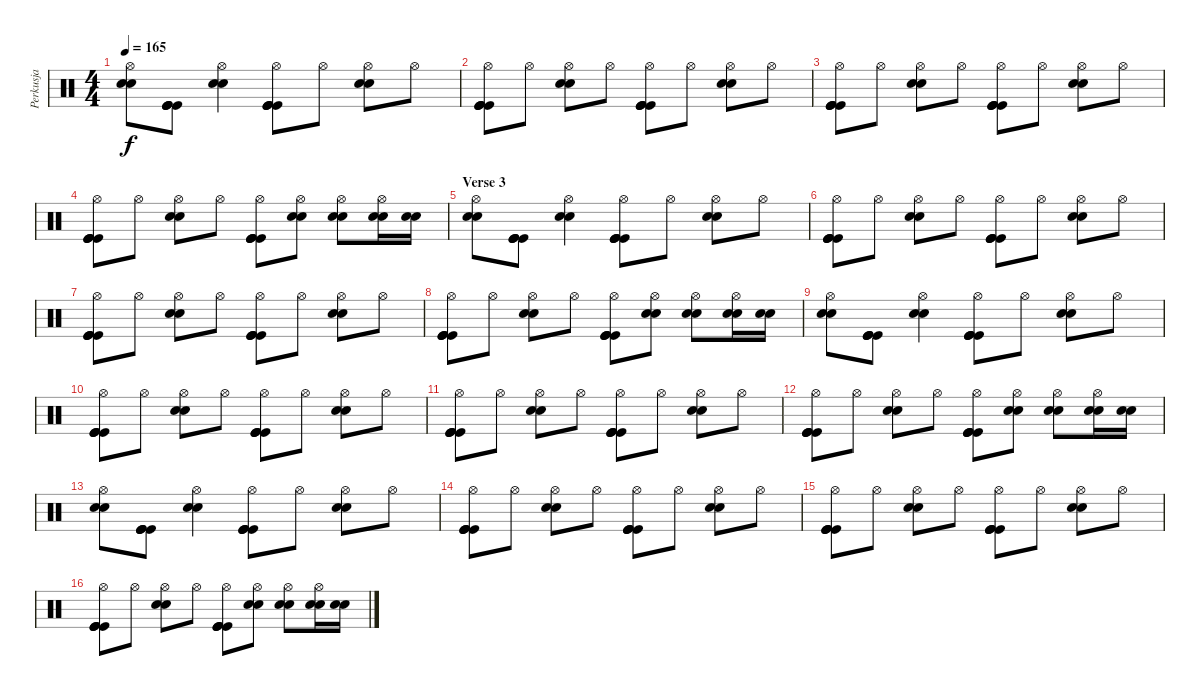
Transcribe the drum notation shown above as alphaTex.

\track ("Perkusja" "Perkusja") {instrument percussion}
\staff {score}
\articulation defaults
\ts (4 4)
\tempo 165
\clef neutral
\ks c
("Hi-Hat (open)" "Snare (hit) 2" "Snare (hit) 2").8{dy f} ("Kick (hit)" "Kick (hit)" "Kick (hit)" "Kick (hit)").8 ("Hi-Hat (open)" "Snare (hit) 2" "Snare (hit) 2").4 ("Hi-Hat (open)" "Kick (hit)" "Kick (hit)" "Kick (hit)" "Kick (hit)").8 "Hi-Hat (open)".8 ("Hi-Hat (open)" "Snare (hit) 2" "Snare (hit) 2").8 "Hi-Hat (open)".8 |
("Hi-Hat (open)" "Kick (hit)" "Kick (hit)" "Kick (hit)" "Kick (hit)").8 "Hi-Hat (open)".8 ("Hi-Hat (open)" "Snare (hit) 2" "Snare (hit) 2").8 "Hi-Hat (open)".8 ("Hi-Hat (open)" "Kick (hit)" "Kick (hit)" "Kick (hit)" "Kick (hit)").8 "Hi-Hat (open)".8 ("Hi-Hat (open)" "Snare (hit) 2" "Snare (hit) 2").8 "Hi-Hat (open)".8 |
("Hi-Hat (open)" "Kick (hit)" "Kick (hit)" "Kick (hit)" "Kick (hit)").8 "Hi-Hat (open)".8 ("Hi-Hat (open)" "Snare (hit) 2" "Snare (hit) 2").8 "Hi-Hat (open)".8 ("Hi-Hat (open)" "Kick (hit)" "Kick (hit)" "Kick (hit)" "Kick (hit)").8 "Hi-Hat (open)".8 ("Hi-Hat (open)" "Snare (hit) 2" "Snare (hit) 2").8 "Hi-Hat (open)".8 |
("Hi-Hat (open)" "Kick (hit)" "Kick (hit)" "Kick (hit)" "Kick (hit)").8 "Hi-Hat (open)".8 ("Hi-Hat (open)" "Snare (hit) 2" "Snare (hit) 2").8 "Hi-Hat (open)".8 ("Hi-Hat (open)" "Kick (hit)" "Kick (hit)" "Kick (hit)" "Kick (hit)").8 ("Hi-Hat (open)" "Snare (hit) 2" "Snare (hit) 2").8 ("Hi-Hat (open)" "Snare (hit) 2" "Snare (hit) 2").8 ("Hi-Hat (open)" "Snare (hit) 2" "Snare (hit) 2").16 ("Snare (hit) 2" "Snare (hit) 2").16 |
\section ("" "Verse 3")
("Hi-Hat (open)" "Snare (hit) 2" "Snare (hit) 2").8 ("Kick (hit)" "Kick (hit)" "Kick (hit)" "Kick (hit)").8 ("Hi-Hat (open)" "Snare (hit) 2" "Snare (hit) 2").4 ("Hi-Hat (open)" "Kick (hit)" "Kick (hit)" "Kick (hit)" "Kick (hit)").8 "Hi-Hat (open)".8 ("Hi-Hat (open)" "Snare (hit) 2" "Snare (hit) 2").8 "Hi-Hat (open)".8 |
("Hi-Hat (open)" "Kick (hit)" "Kick (hit)" "Kick (hit)" "Kick (hit)").8 "Hi-Hat (open)".8 ("Hi-Hat (open)" "Snare (hit) 2" "Snare (hit) 2").8 "Hi-Hat (open)".8 ("Hi-Hat (open)" "Kick (hit)" "Kick (hit)" "Kick (hit)" "Kick (hit)").8 "Hi-Hat (open)".8 ("Hi-Hat (open)" "Snare (hit) 2" "Snare (hit) 2").8 "Hi-Hat (open)".8 |
("Hi-Hat (open)" "Kick (hit)" "Kick (hit)" "Kick (hit)" "Kick (hit)").8 "Hi-Hat (open)".8 ("Hi-Hat (open)" "Snare (hit) 2" "Snare (hit) 2").8 "Hi-Hat (open)".8 ("Hi-Hat (open)" "Kick (hit)" "Kick (hit)" "Kick (hit)" "Kick (hit)").8 "Hi-Hat (open)".8 ("Hi-Hat (open)" "Snare (hit) 2" "Snare (hit) 2").8 "Hi-Hat (open)".8 |
("Hi-Hat (open)" "Kick (hit)" "Kick (hit)" "Kick (hit)" "Kick (hit)").8 "Hi-Hat (open)".8 ("Hi-Hat (open)" "Snare (hit) 2" "Snare (hit) 2").8 "Hi-Hat (open)".8 ("Hi-Hat (open)" "Kick (hit)" "Kick (hit)" "Kick (hit)" "Kick (hit)").8 ("Hi-Hat (open)" "Snare (hit) 2" "Snare (hit) 2").8 ("Hi-Hat (open)" "Snare (hit) 2" "Snare (hit) 2").8 ("Hi-Hat (open)" "Snare (hit) 2" "Snare (hit) 2").16 ("Snare (hit) 2" "Snare (hit) 2").16 |
("Hi-Hat (open)" "Snare (hit) 2" "Snare (hit) 2").8 ("Kick (hit)" "Kick (hit)" "Kick (hit)" "Kick (hit)").8 ("Hi-Hat (open)" "Snare (hit) 2" "Snare (hit) 2").4 ("Hi-Hat (open)" "Kick (hit)" "Kick (hit)" "Kick (hit)" "Kick (hit)").8 "Hi-Hat (open)".8 ("Hi-Hat (open)" "Snare (hit) 2" "Snare (hit) 2").8 "Hi-Hat (open)".8 |
("Hi-Hat (open)" "Kick (hit)" "Kick (hit)" "Kick (hit)" "Kick (hit)").8 "Hi-Hat (open)".8 ("Hi-Hat (open)" "Snare (hit) 2" "Snare (hit) 2").8 "Hi-Hat (open)".8 ("Hi-Hat (open)" "Kick (hit)" "Kick (hit)" "Kick (hit)" "Kick (hit)").8 "Hi-Hat (open)".8 ("Hi-Hat (open)" "Snare (hit) 2" "Snare (hit) 2").8 "Hi-Hat (open)".8 |
("Hi-Hat (open)" "Kick (hit)" "Kick (hit)" "Kick (hit)" "Kick (hit)").8 "Hi-Hat (open)".8 ("Hi-Hat (open)" "Snare (hit) 2" "Snare (hit) 2").8 "Hi-Hat (open)".8 ("Hi-Hat (open)" "Kick (hit)" "Kick (hit)" "Kick (hit)" "Kick (hit)").8 "Hi-Hat (open)".8 ("Hi-Hat (open)" "Snare (hit) 2" "Snare (hit) 2").8 "Hi-Hat (open)".8 |
("Hi-Hat (open)" "Kick (hit)" "Kick (hit)" "Kick (hit)" "Kick (hit)").8 "Hi-Hat (open)".8 ("Hi-Hat (open)" "Snare (hit) 2" "Snare (hit) 2").8 "Hi-Hat (open)".8 ("Hi-Hat (open)" "Kick (hit)" "Kick (hit)" "Kick (hit)" "Kick (hit)").8 ("Hi-Hat (open)" "Snare (hit) 2" "Snare (hit) 2").8 ("Hi-Hat (open)" "Snare (hit) 2" "Snare (hit) 2").8 ("Hi-Hat (open)" "Snare (hit) 2" "Snare (hit) 2").16 ("Snare (hit) 2" "Snare (hit) 2").16 |
("Hi-Hat (open)" "Snare (hit) 2" "Snare (hit) 2").8 ("Kick (hit)" "Kick (hit)" "Kick (hit)" "Kick (hit)").8 ("Hi-Hat (open)" "Snare (hit) 2" "Snare (hit) 2").4 ("Hi-Hat (open)" "Kick (hit)" "Kick (hit)" "Kick (hit)" "Kick (hit)").8 "Hi-Hat (open)".8 ("Hi-Hat (open)" "Snare (hit) 2" "Snare (hit) 2").8 "Hi-Hat (open)".8 |
("Hi-Hat (open)" "Kick (hit)" "Kick (hit)" "Kick (hit)" "Kick (hit)").8 "Hi-Hat (open)".8 ("Hi-Hat (open)" "Snare (hit) 2" "Snare (hit) 2").8 "Hi-Hat (open)".8 ("Hi-Hat (open)" "Kick (hit)" "Kick (hit)" "Kick (hit)" "Kick (hit)").8 "Hi-Hat (open)".8 ("Hi-Hat (open)" "Snare (hit) 2" "Snare (hit) 2").8 "Hi-Hat (open)".8 |
("Hi-Hat (open)" "Kick (hit)" "Kick (hit)" "Kick (hit)" "Kick (hit)").8 "Hi-Hat (open)".8 ("Hi-Hat (open)" "Snare (hit) 2" "Snare (hit) 2").8 "Hi-Hat (open)".8 ("Hi-Hat (open)" "Kick (hit)" "Kick (hit)" "Kick (hit)" "Kick (hit)").8 "Hi-Hat (open)".8 ("Hi-Hat (open)" "Snare (hit) 2" "Snare (hit) 2").8 "Hi-Hat (open)".8 |
("Hi-Hat (open)" "Kick (hit)" "Kick (hit)" "Kick (hit)" "Kick (hit)").8 "Hi-Hat (open)".8 ("Hi-Hat (open)" "Snare (hit) 2" "Snare (hit) 2").8 "Hi-Hat (open)".8 ("Hi-Hat (open)" "Kick (hit)" "Kick (hit)" "Kick (hit)" "Kick (hit)").8 ("Hi-Hat (open)" "Snare (hit) 2" "Snare (hit) 2").8 ("Hi-Hat (open)" "Snare (hit) 2" "Snare (hit) 2").8 ("Hi-Hat (open)" "Snare (hit) 2" "Snare (hit) 2").16 ("Snare (hit) 2" "Snare (hit) 2").16
